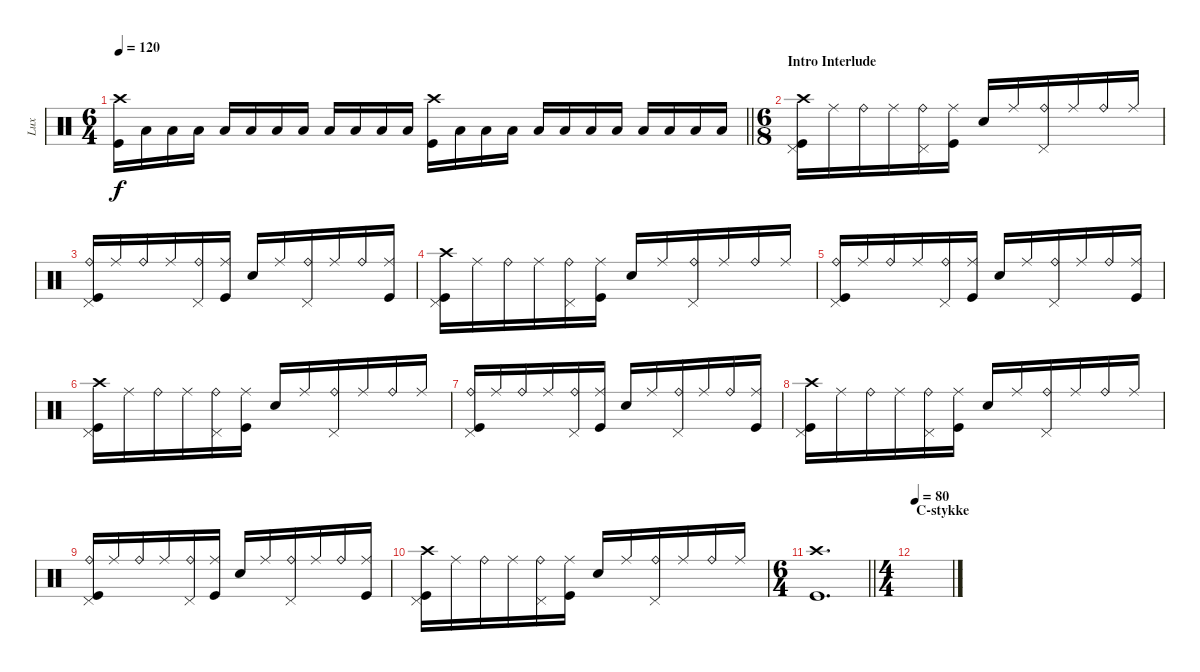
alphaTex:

\track ("Lux" "Lux") {solo instrument percussion}
\staff {score}
\articulation defaults
\ts (6 4)
\tempo 120
\clef neutral
\barLineRight lightlight
\ks c
("Crash high (hit)" "Kick (hit)").16{dy f} "Low Floor Tom (hit)".16 "Low Floor Tom (hit)".16 "Low Floor Tom (hit)".16 "Low Floor Tom (hit)".16 "Low Floor Tom (hit)".16 "Low Floor Tom (hit)".16 "Low Floor Tom (hit)".16 "Low Floor Tom (hit)".16 "Low Floor Tom (hit)".16 "Low Floor Tom (hit)".16 "Low Floor Tom (hit)".16 ("Crash high (hit)" "Kick (hit)").16 "Low Floor Tom (hit)".16 "Low Floor Tom (hit)".16 "Low Floor Tom (hit)".16 "Low Floor Tom (hit)".16 "Low Floor Tom (hit)".16 "Low Floor Tom (hit)".16 "Low Floor Tom (hit)".16 "Low Floor Tom (hit)".16 "Low Floor Tom (hit)".16 "Low Floor Tom (hit)".16 "Low Floor Tom (hit)".16 |
\ts (6 8)
\section ("" "Intro Interlude")
("Crash high (hit)" "Pedal Hi-Hat (hit)" "Kick (hit)").16 "Ride (middle)".16 "Ride (bell)".16 "Ride (middle)".16 ("Ride (bell)" "Pedal Hi-Hat (hit)").16 ("Ride (middle)" "Kick (hit)").16 "Snare (hit) 2".16 "Ride (middle)".16 ("Ride (bell)" "Pedal Hi-Hat (hit)").16 "Ride (middle)".16 "Ride (bell)".16 "Ride (middle)".16 |
("Ride (bell)" "Pedal Hi-Hat (hit)" "Kick (hit)").16 "Ride (middle)".16 "Ride (bell)".16 "Ride (middle)".16 ("Ride (bell)" "Pedal Hi-Hat (hit)").16 ("Ride (middle)" "Kick (hit)").16 "Snare (hit) 2".16 "Ride (middle)".16 ("Ride (bell)" "Pedal Hi-Hat (hit)").16 "Ride (middle)".16 "Ride (bell)".16 ("Ride (middle)" "Kick (hit)").16 |
("Crash high (hit)" "Pedal Hi-Hat (hit)" "Kick (hit)").16 "Ride (middle)".16 "Ride (bell)".16 "Ride (middle)".16 ("Ride (bell)" "Pedal Hi-Hat (hit)").16 ("Ride (middle)" "Kick (hit)").16 "Snare (hit) 2".16 "Ride (middle)".16 ("Ride (bell)" "Pedal Hi-Hat (hit)").16 "Ride (middle)".16 "Ride (bell)".16 "Ride (middle)".16 |
("Ride (bell)" "Pedal Hi-Hat (hit)" "Kick (hit)").16 "Ride (middle)".16 "Ride (bell)".16 "Ride (middle)".16 ("Ride (bell)" "Pedal Hi-Hat (hit)").16 ("Ride (middle)" "Kick (hit)").16 "Snare (hit) 2".16 "Ride (middle)".16 ("Ride (bell)" "Pedal Hi-Hat (hit)").16 "Ride (middle)".16 "Ride (bell)".16 ("Ride (middle)" "Kick (hit)").16 |
("Crash high (hit)" "Pedal Hi-Hat (hit)" "Kick (hit)").16 "Ride (middle)".16 "Ride (bell)".16 "Ride (middle)".16 ("Ride (bell)" "Pedal Hi-Hat (hit)").16 ("Ride (middle)" "Kick (hit)").16 "Snare (hit) 2".16 "Ride (middle)".16 ("Ride (bell)" "Pedal Hi-Hat (hit)").16 "Ride (middle)".16 "Ride (bell)".16 "Ride (middle)".16 |
("Ride (bell)" "Pedal Hi-Hat (hit)" "Kick (hit)").16 "Ride (middle)".16 "Ride (bell)".16 "Ride (middle)".16 ("Ride (bell)" "Pedal Hi-Hat (hit)").16 ("Ride (middle)" "Kick (hit)").16 "Snare (hit) 2".16 "Ride (middle)".16 ("Ride (bell)" "Pedal Hi-Hat (hit)").16 "Ride (middle)".16 "Ride (bell)".16 ("Ride (middle)" "Kick (hit)").16 |
("Crash high (hit)" "Pedal Hi-Hat (hit)" "Kick (hit)").16 "Ride (middle)".16 "Ride (bell)".16 "Ride (middle)".16 ("Ride (bell)" "Pedal Hi-Hat (hit)").16 ("Ride (middle)" "Kick (hit)").16 "Snare (hit) 2".16 "Ride (middle)".16 ("Ride (bell)" "Pedal Hi-Hat (hit)").16 "Ride (middle)".16 "Ride (bell)".16 "Ride (middle)".16 |
("Ride (bell)" "Pedal Hi-Hat (hit)" "Kick (hit)").16 "Ride (middle)".16 "Ride (bell)".16 "Ride (middle)".16 ("Ride (bell)" "Pedal Hi-Hat (hit)").16 ("Ride (middle)" "Kick (hit)").16 "Snare (hit) 2".16 "Ride (middle)".16 ("Ride (bell)" "Pedal Hi-Hat (hit)").16 "Ride (middle)".16 "Ride (bell)".16 ("Ride (middle)" "Kick (hit)").16 |
("Crash high (hit)" "Pedal Hi-Hat (hit)" "Kick (hit)").16 "Ride (middle)".16 "Ride (bell)".16 "Ride (middle)".16 ("Ride (bell)" "Pedal Hi-Hat (hit)").16 ("Ride (middle)" "Kick (hit)").16 "Snare (hit) 2".16 "Ride (middle)".16 ("Ride (bell)" "Pedal Hi-Hat (hit)").16 "Ride (middle)".16 "Ride (bell)".16 "Ride (middle)".16 |
\ts (6 4)
\barLineRight lightlight
("Crash high (hit)" "Kick (hit)").1{d} |
\ts (4 4)
\section ("" "C-stykke")
\tempo 80
